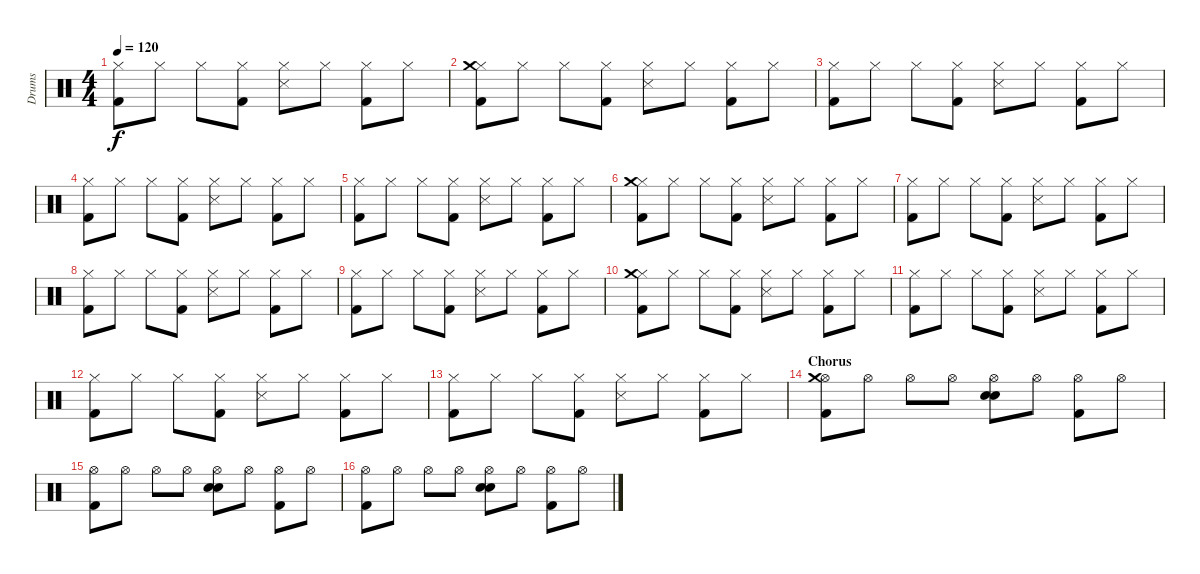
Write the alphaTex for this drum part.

\track ("Drums" "Drums") {instrument percussion}
\staff {score}
\articulation defaults
\ts (4 4)
\tempo 120
\clef neutral
\ks c
("Hi-Hat (closed)" "Kick (hit) 2").8{dy f} "Hi-Hat (closed)".8 "Hi-Hat (closed)".8 ("Hi-Hat (closed)" "Kick (hit) 2").8 ("Hi-Hat (closed)" "Snare (side stick) 3").8 "Hi-Hat (closed)".8 ("Hi-Hat (closed)" "Kick (hit) 2").8 "Hi-Hat (closed)".8 |
("Hi-Hat (closed)" "Kick (hit) 2" "Crash medium (hit)").8 "Hi-Hat (closed)".8 "Hi-Hat (closed)".8 ("Hi-Hat (closed)" "Kick (hit) 2").8 ("Hi-Hat (closed)" "Snare (side stick) 3").8 "Hi-Hat (closed)".8 ("Hi-Hat (closed)" "Kick (hit) 2").8 "Hi-Hat (closed)".8 |
("Hi-Hat (closed)" "Kick (hit) 2").8 "Hi-Hat (closed)".8 "Hi-Hat (closed)".8 ("Hi-Hat (closed)" "Kick (hit) 2").8 ("Hi-Hat (closed)" "Snare (side stick) 3").8 "Hi-Hat (closed)".8 ("Hi-Hat (closed)" "Kick (hit) 2").8 "Hi-Hat (closed)".8 |
("Hi-Hat (closed)" "Kick (hit) 2").8 "Hi-Hat (closed)".8 "Hi-Hat (closed)".8 ("Hi-Hat (closed)" "Kick (hit) 2").8 ("Hi-Hat (closed)" "Snare (side stick) 3").8 "Hi-Hat (closed)".8 ("Hi-Hat (closed)" "Kick (hit) 2").8 "Hi-Hat (closed)".8 |
("Hi-Hat (closed)" "Kick (hit) 2").8 "Hi-Hat (closed)".8 "Hi-Hat (closed)".8 ("Hi-Hat (closed)" "Kick (hit) 2").8 ("Hi-Hat (closed)" "Snare (side stick) 3").8 "Hi-Hat (closed)".8 ("Hi-Hat (closed)" "Kick (hit) 2").8 "Hi-Hat (closed)".8 |
("Hi-Hat (closed)" "Kick (hit) 2" "Crash medium (hit)").8 "Hi-Hat (closed)".8 "Hi-Hat (closed)".8 ("Hi-Hat (closed)" "Kick (hit) 2").8 ("Hi-Hat (closed)" "Snare (side stick) 3").8 "Hi-Hat (closed)".8 ("Hi-Hat (closed)" "Kick (hit) 2").8 "Hi-Hat (closed)".8 |
("Hi-Hat (closed)" "Kick (hit) 2").8 "Hi-Hat (closed)".8 "Hi-Hat (closed)".8 ("Hi-Hat (closed)" "Kick (hit) 2").8 ("Hi-Hat (closed)" "Snare (side stick) 3").8 "Hi-Hat (closed)".8 ("Hi-Hat (closed)" "Kick (hit) 2").8 "Hi-Hat (closed)".8 |
("Hi-Hat (closed)" "Kick (hit) 2").8 "Hi-Hat (closed)".8 "Hi-Hat (closed)".8 ("Hi-Hat (closed)" "Kick (hit) 2").8 ("Hi-Hat (closed)" "Snare (side stick) 3").8 "Hi-Hat (closed)".8 ("Hi-Hat (closed)" "Kick (hit) 2").8 "Hi-Hat (closed)".8 |
("Hi-Hat (closed)" "Kick (hit) 2").8 "Hi-Hat (closed)".8 "Hi-Hat (closed)".8 ("Hi-Hat (closed)" "Kick (hit) 2").8 ("Hi-Hat (closed)" "Snare (side stick) 3").8 "Hi-Hat (closed)".8 ("Hi-Hat (closed)" "Kick (hit) 2").8 "Hi-Hat (closed)".8 |
("Hi-Hat (closed)" "Kick (hit) 2" "Crash medium (hit)").8 "Hi-Hat (closed)".8 "Hi-Hat (closed)".8 ("Hi-Hat (closed)" "Kick (hit) 2").8 ("Hi-Hat (closed)" "Snare (side stick) 3").8 "Hi-Hat (closed)".8 ("Hi-Hat (closed)" "Kick (hit) 2").8 "Hi-Hat (closed)".8 |
("Hi-Hat (closed)" "Kick (hit) 2").8 "Hi-Hat (closed)".8 "Hi-Hat (closed)".8 ("Hi-Hat (closed)" "Kick (hit) 2").8 ("Hi-Hat (closed)" "Snare (side stick) 3").8 "Hi-Hat (closed)".8 ("Hi-Hat (closed)" "Kick (hit) 2").8 "Hi-Hat (closed)".8 |
("Hi-Hat (closed)" "Kick (hit) 2").8 "Hi-Hat (closed)".8 "Hi-Hat (closed)".8 ("Hi-Hat (closed)" "Kick (hit) 2").8 ("Hi-Hat (closed)" "Snare (side stick) 3").8 "Hi-Hat (closed)".8 ("Hi-Hat (closed)" "Kick (hit) 2").8 "Hi-Hat (closed)".8 |
("Hi-Hat (closed)" "Kick (hit) 2").8 "Hi-Hat (closed)".8 "Hi-Hat (closed)".8 ("Hi-Hat (closed)" "Kick (hit) 2").8 ("Hi-Hat (closed)" "Snare (side stick) 3").8 "Hi-Hat (closed)".8 ("Hi-Hat (closed)" "Kick (hit) 2").8 "Hi-Hat (closed)".8 |
\section ("" "Chorus")
("Hi-Hat (open)" "Kick (hit) 2" "Crash medium (hit)").8 "Hi-Hat (open)".8 "Hi-Hat (open)".8 "Hi-Hat (open)".8 ("Hi-Hat (open)" "Snare (hit) 2" "Electric Snare (hit)").8 "Hi-Hat (open)".8 ("Hi-Hat (open)" "Kick (hit) 2").8 "Hi-Hat (open)".8 |
("Hi-Hat (open)" "Kick (hit) 2").8 "Hi-Hat (open)".8 "Hi-Hat (open)".8 "Hi-Hat (open)".8 ("Hi-Hat (open)" "Snare (hit) 2" "Electric Snare (hit)").8 "Hi-Hat (open)".8 ("Hi-Hat (open)" "Kick (hit) 2").8 "Hi-Hat (open)".8 |
("Hi-Hat (open)" "Kick (hit) 2").8 "Hi-Hat (open)".8 "Hi-Hat (open)".8 "Hi-Hat (open)".8 ("Hi-Hat (open)" "Snare (hit) 2" "Electric Snare (hit)").8 "Hi-Hat (open)".8 ("Hi-Hat (open)" "Kick (hit) 2").8 "Hi-Hat (open)".8
